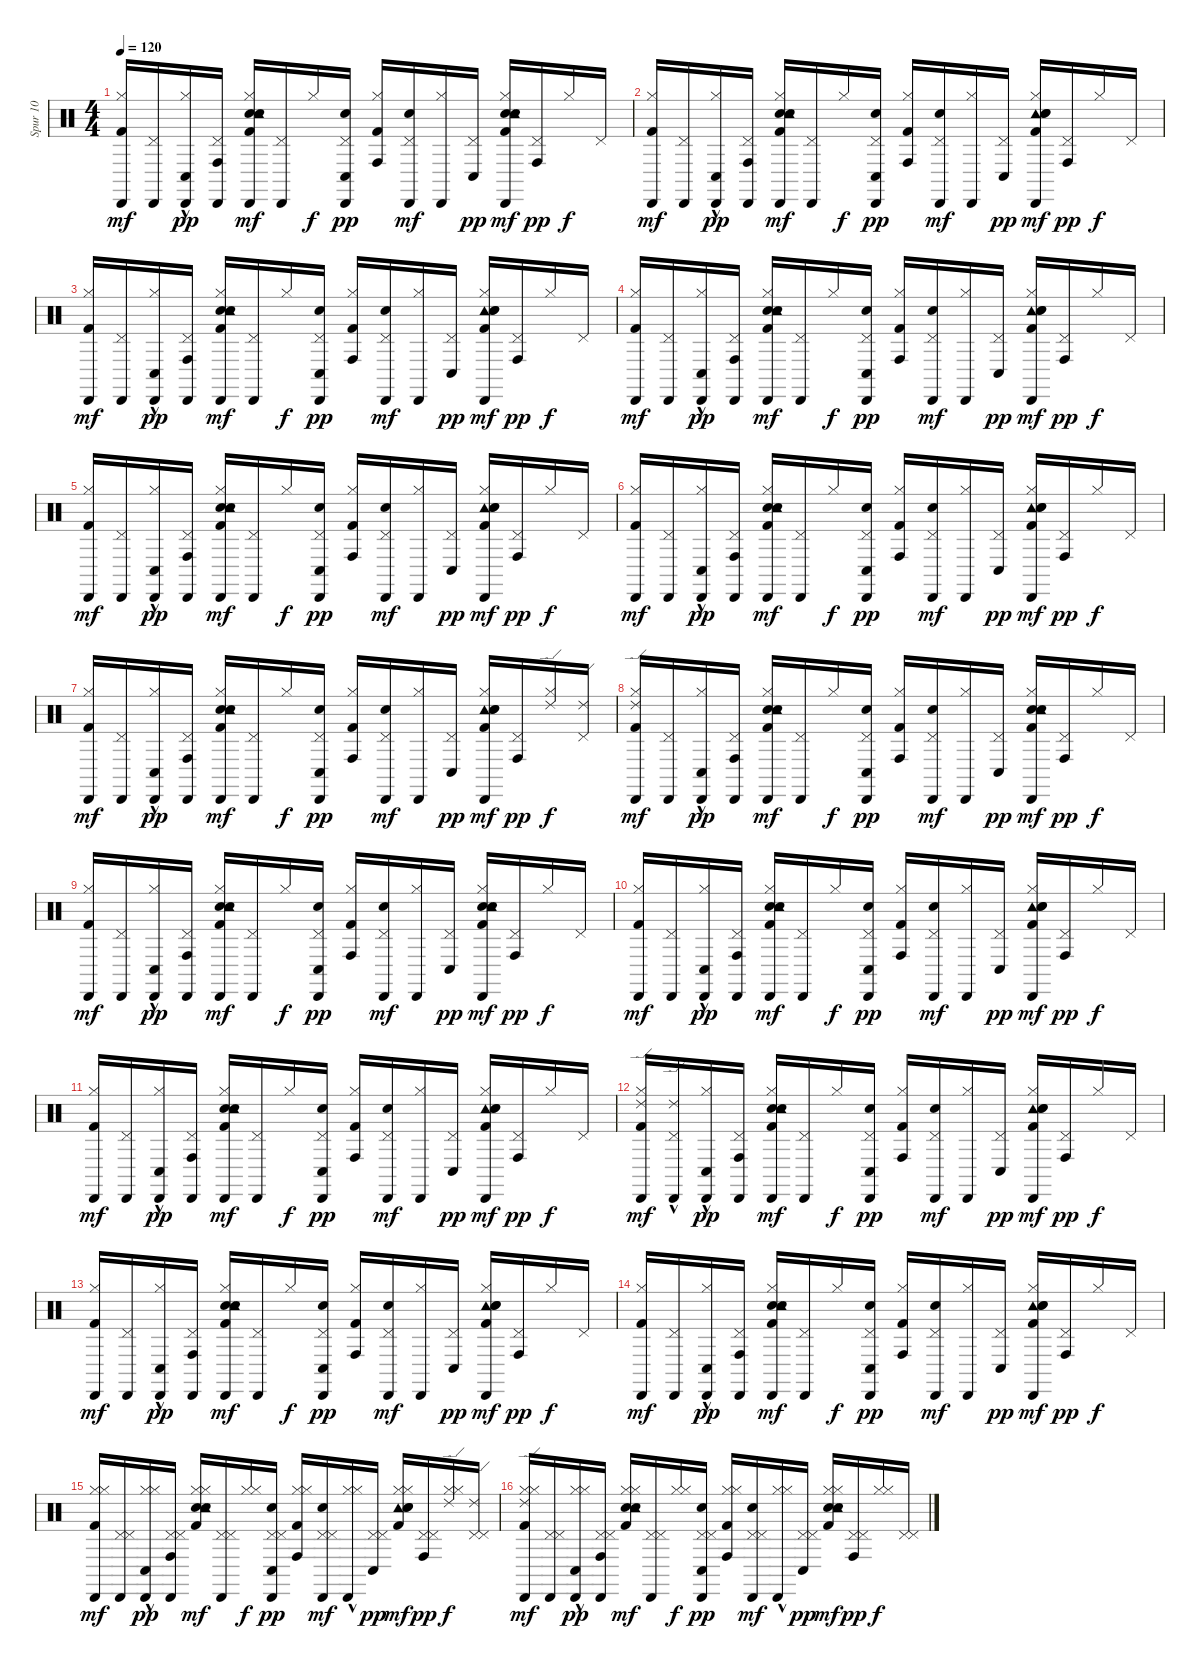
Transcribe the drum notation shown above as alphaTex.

\track ("Spur 10" "Spur 10") {instrument percussion}
\staff {score}
\articulation defaults
\ts (4 4)
\tempo 120
\clef neutral
\ks c
("Kick (hit) 2" "Hi-Hat (closed)" "Cabasa (hit)").16{dy mf} ("Pedal Hi-Hat (hit)" "Cabasa (hit)").16 ("Hi-Hat (closed)" "Cabasa (hit)" "Conga low (hit)"{hac}).16{dy pp} ("Pedal Hi-Hat (hit)" "Cabasa (hit)" "Conga high (hit)").16 ("Kick (hit) 2" "Snare (hit) 2" "Tambourine (hit)" "Electric Snare (hit)" "Hi-Hat (closed)" "Cabasa (hit)").16{dy mf} ("Pedal Hi-Hat (hit)" "Cabasa (hit)").16 "Hi-Hat (closed)".16{dy f} ("Electric Snare (hit)" "Pedal Hi-Hat (hit)" "Cabasa (hit)" "Conga low (hit)").16{dy pp} ("Kick (hit) 2" "Hi-Hat (closed)" "Conga high (hit)").16 ("Electric Snare (hit)" "Pedal Hi-Hat (hit)" "Cabasa (hit)").16{dy mf} ("Hi-Hat (closed)" "Cabasa (hit)").16 ("Pedal Hi-Hat (hit)" "Conga low (hit)").16{dy pp} ("Electric Snare (hit)" "Kick (hit) 2" "Tambourine (hit)" "Snare (hit) 2" "Hi-Hat (closed)" "Cabasa (hit)").16{dy mf} ("Pedal Hi-Hat (hit)" "Conga high (hit)").16{dy pp} "Hi-Hat (closed)".16{dy f} "Pedal Hi-Hat (hit)".16 |
("Kick (hit) 2" "Hi-Hat (closed)" "Cabasa (hit)").16{dy mf} ("Pedal Hi-Hat (hit)" "Cabasa (hit)").16 ("Hi-Hat (closed)" "Cabasa (hit)" "Conga low (hit)"{hac}).16{dy pp} ("Pedal Hi-Hat (hit)" "Cabasa (hit)" "Conga high (hit)").16 ("Kick (hit) 2" "Snare (hit) 2" "Tambourine (hit)" "Electric Snare (hit)" "Hi-Hat (closed)" "Cabasa (hit)").16{dy mf} ("Pedal Hi-Hat (hit)" "Cabasa (hit)").16 "Hi-Hat (closed)".16{dy f} ("Electric Snare (hit)" "Pedal Hi-Hat (hit)" "Cabasa (hit)" "Conga low (hit)").16{dy pp} ("Kick (hit) 2" "Hi-Hat (closed)" "Conga high (hit)").16 ("Electric Snare (hit)" "Pedal Hi-Hat (hit)" "Cabasa (hit)").16{dy mf} ("Hi-Hat (closed)" "Cabasa (hit)").16 ("Pedal Hi-Hat (hit)" "Conga low (hit)").16{dy pp} ("Tambourine (hit)" "Electric Snare (hit)" "Snare (hit) 2" "Kick (hit) 2" "Hi-Hat (closed)" "Cabasa (hit)").16{dy mf} ("Pedal Hi-Hat (hit)" "Conga high (hit)").16{dy pp} "Hi-Hat (closed)".16{dy f} "Pedal Hi-Hat (hit)".16 |
("Kick (hit) 2" "Hi-Hat (closed)" "Cabasa (hit)").16{dy mf} ("Pedal Hi-Hat (hit)" "Cabasa (hit)").16 ("Hi-Hat (closed)" "Cabasa (hit)" "Conga low (hit)"{hac}).16{dy pp} ("Pedal Hi-Hat (hit)" "Cabasa (hit)" "Conga high (hit)").16 ("Snare (hit) 2" "Kick (hit) 2" "Tambourine (hit)" "Electric Snare (hit)" "Hi-Hat (closed)" "Cabasa (hit)").16{dy mf} ("Pedal Hi-Hat (hit)" "Cabasa (hit)").16 "Hi-Hat (closed)".16{dy f} ("Electric Snare (hit)" "Pedal Hi-Hat (hit)" "Cabasa (hit)" "Conga low (hit)").16{dy pp} ("Kick (hit) 2" "Hi-Hat (closed)" "Conga high (hit)").16 ("Electric Snare (hit)" "Pedal Hi-Hat (hit)" "Cabasa (hit)").16{dy mf} ("Hi-Hat (closed)" "Cabasa (hit)").16 ("Pedal Hi-Hat (hit)" "Conga low (hit)").16{dy pp} ("Kick (hit) 2" "Tambourine (hit)" "Snare (hit) 2" "Electric Snare (hit)" "Hi-Hat (closed)" "Cabasa (hit)").16{dy mf} ("Pedal Hi-Hat (hit)" "Conga high (hit)").16{dy pp} "Hi-Hat (closed)".16{dy f} "Pedal Hi-Hat (hit)".16 |
("Kick (hit) 2" "Hi-Hat (closed)" "Cabasa (hit)").16{dy mf} ("Pedal Hi-Hat (hit)" "Cabasa (hit)").16 ("Hi-Hat (closed)" "Cabasa (hit)" "Conga low (hit)"{hac}).16{dy pp} ("Pedal Hi-Hat (hit)" "Cabasa (hit)" "Conga high (hit)").16 ("Snare (hit) 2" "Kick (hit) 2" "Tambourine (hit)" "Electric Snare (hit)" "Hi-Hat (closed)" "Cabasa (hit)").16{dy mf} ("Pedal Hi-Hat (hit)" "Cabasa (hit)").16 "Hi-Hat (closed)".16{dy f} ("Electric Snare (hit)" "Pedal Hi-Hat (hit)" "Cabasa (hit)" "Conga low (hit)").16{dy pp} ("Kick (hit) 2" "Hi-Hat (closed)" "Conga high (hit)").16 ("Electric Snare (hit)" "Pedal Hi-Hat (hit)" "Cabasa (hit)").16{dy mf} ("Hi-Hat (closed)" "Cabasa (hit)").16 ("Pedal Hi-Hat (hit)" "Conga low (hit)").16{dy pp} ("Kick (hit) 2" "Tambourine (hit)" "Snare (hit) 2" "Electric Snare (hit)" "Hi-Hat (closed)" "Cabasa (hit)").16{dy mf} ("Pedal Hi-Hat (hit)" "Conga high (hit)").16{dy pp} "Hi-Hat (closed)".16{dy f} "Pedal Hi-Hat (hit)".16 |
("Kick (hit) 2" "Hi-Hat (closed)" "Cabasa (hit)").16{dy mf} ("Pedal Hi-Hat (hit)" "Cabasa (hit)").16 ("Hi-Hat (closed)" "Cabasa (hit)" "Conga low (hit)"{hac}).16{dy pp} ("Pedal Hi-Hat (hit)" "Cabasa (hit)" "Conga high (hit)").16 ("Snare (hit) 2" "Kick (hit) 2" "Tambourine (hit)" "Electric Snare (hit)" "Hi-Hat (closed)" "Cabasa (hit)").16{dy mf} ("Pedal Hi-Hat (hit)" "Cabasa (hit)").16 "Hi-Hat (closed)".16{dy f} ("Electric Snare (hit)" "Pedal Hi-Hat (hit)" "Cabasa (hit)" "Conga low (hit)").16{dy pp} ("Kick (hit) 2" "Hi-Hat (closed)" "Conga high (hit)").16 ("Electric Snare (hit)" "Pedal Hi-Hat (hit)" "Cabasa (hit)").16{dy mf} ("Hi-Hat (closed)" "Cabasa (hit)").16 ("Pedal Hi-Hat (hit)" "Conga low (hit)").16{dy pp} ("Kick (hit) 2" "Tambourine (hit)" "Snare (hit) 2" "Electric Snare (hit)" "Hi-Hat (closed)" "Cabasa (hit)").16{dy mf} ("Pedal Hi-Hat (hit)" "Conga high (hit)").16{dy pp} "Hi-Hat (closed)".16{dy f} "Pedal Hi-Hat (hit)".16 |
("Kick (hit) 2" "Hi-Hat (closed)" "Cabasa (hit)").16{dy mf} ("Pedal Hi-Hat (hit)" "Cabasa (hit)").16 ("Hi-Hat (closed)" "Cabasa (hit)" "Conga low (hit)"{hac}).16{dy pp} ("Pedal Hi-Hat (hit)" "Cabasa (hit)" "Conga high (hit)").16 ("Snare (hit) 2" "Kick (hit) 2" "Tambourine (hit)" "Electric Snare (hit)" "Hi-Hat (closed)" "Cabasa (hit)").16{dy mf} ("Pedal Hi-Hat (hit)" "Cabasa (hit)").16 "Hi-Hat (closed)".16{dy f} ("Electric Snare (hit)" "Pedal Hi-Hat (hit)" "Cabasa (hit)" "Conga low (hit)").16{dy pp} ("Kick (hit) 2" "Hi-Hat (closed)" "Conga high (hit)").16 ("Electric Snare (hit)" "Pedal Hi-Hat (hit)" "Cabasa (hit)").16{dy mf} ("Hi-Hat (closed)" "Cabasa (hit)").16 ("Pedal Hi-Hat (hit)" "Conga low (hit)").16{dy pp} ("Kick (hit) 2" "Tambourine (hit)" "Snare (hit) 2" "Electric Snare (hit)" "Hi-Hat (closed)" "Cabasa (hit)").16{dy mf} ("Pedal Hi-Hat (hit)" "Conga high (hit)").16{dy pp} "Hi-Hat (closed)".16{dy f} "Pedal Hi-Hat (hit)".16 |
("Kick (hit) 2" "Hi-Hat (closed)" "Cabasa (hit)").16{dy mf} ("Pedal Hi-Hat (hit)" "Cabasa (hit)").16 ("Hi-Hat (closed)" "Cabasa (hit)" "Conga low (hit)"{hac}).16{dy pp} ("Pedal Hi-Hat (hit)" "Cabasa (hit)" "Conga high (hit)").16 ("Snare (hit) 2" "Kick (hit) 2" "Tambourine (hit)" "Electric Snare (hit)" "Hi-Hat (closed)" "Cabasa (hit)").16{dy mf} ("Pedal Hi-Hat (hit)" "Cabasa (hit)").16 "Hi-Hat (closed)".16{dy f} ("Electric Snare (hit)" "Pedal Hi-Hat (hit)" "Cabasa (hit)" "Conga low (hit)").16{dy pp} ("Kick (hit) 2" "Hi-Hat (closed)" "Conga high (hit)").16 ("Electric Snare (hit)" "Pedal Hi-Hat (hit)" "Cabasa (hit)").16{dy mf} ("Hi-Hat (closed)" "Cabasa (hit)").16 ("Pedal Hi-Hat (hit)" "Conga low (hit)").16{dy pp} ("Kick (hit) 2" "Tambourine (hit)" "Snare (hit) 2" "Electric Snare (hit)" "Hi-Hat (closed)" "Cabasa (hit)").16{dy mf} ("Pedal Hi-Hat (hit)" "Conga high (hit)").16{dy pp} ("Ride (edge) 2" "Hi-Hat (closed)").16{dy f} ("Pedal Hi-Hat (hit)" "Ride (edge) 2").16 |
("Kick (hit) 2" "Hi-Hat (closed)" "Ride (edge) 2" "Cabasa (hit)").16{dy mf} ("Pedal Hi-Hat (hit)" "Cabasa (hit)").16 ("Hi-Hat (closed)" "Cabasa (hit)" "Conga low (hit)"{hac}).16{dy pp} ("Pedal Hi-Hat (hit)" "Cabasa (hit)" "Conga high (hit)").16 ("Kick (hit) 2" "Snare (hit) 2" "Tambourine (hit)" "Electric Snare (hit)" "Hi-Hat (closed)" "Cabasa (hit)").16{dy mf} ("Pedal Hi-Hat (hit)" "Cabasa (hit)").16 "Hi-Hat (closed)".16{dy f} ("Electric Snare (hit)" "Pedal Hi-Hat (hit)" "Cabasa (hit)" "Conga low (hit)").16{dy pp} ("Kick (hit) 2" "Hi-Hat (closed)" "Conga high (hit)").16 ("Electric Snare (hit)" "Pedal Hi-Hat (hit)" "Cabasa (hit)").16{dy mf} ("Hi-Hat (closed)" "Cabasa (hit)").16 ("Pedal Hi-Hat (hit)" "Conga low (hit)").16{dy pp} ("Electric Snare (hit)" "Kick (hit) 2" "Tambourine (hit)" "Snare (hit) 2" "Hi-Hat (closed)" "Cabasa (hit)").16{dy mf} ("Pedal Hi-Hat (hit)" "Conga high (hit)").16{dy pp} "Hi-Hat (closed)".16{dy f} "Pedal Hi-Hat (hit)".16 |
("Kick (hit) 2" "Hi-Hat (closed)" "Cabasa (hit)").16{dy mf} ("Pedal Hi-Hat (hit)" "Cabasa (hit)").16 ("Hi-Hat (closed)" "Cabasa (hit)" "Conga low (hit)"{hac}).16{dy pp} ("Pedal Hi-Hat (hit)" "Cabasa (hit)" "Conga high (hit)").16 ("Kick (hit) 2" "Snare (hit) 2" "Tambourine (hit)" "Electric Snare (hit)" "Hi-Hat (closed)" "Cabasa (hit)").16{dy mf} ("Pedal Hi-Hat (hit)" "Cabasa (hit)").16 "Hi-Hat (closed)".16{dy f} ("Electric Snare (hit)" "Pedal Hi-Hat (hit)" "Cabasa (hit)" "Conga low (hit)").16{dy pp} ("Kick (hit) 2" "Hi-Hat (closed)" "Conga high (hit)").16 ("Electric Snare (hit)" "Pedal Hi-Hat (hit)" "Cabasa (hit)").16{dy mf} ("Hi-Hat (closed)" "Cabasa (hit)").16 ("Pedal Hi-Hat (hit)" "Conga low (hit)").16{dy pp} ("Electric Snare (hit)" "Kick (hit) 2" "Tambourine (hit)" "Snare (hit) 2" "Hi-Hat (closed)" "Cabasa (hit)").16{dy mf} ("Pedal Hi-Hat (hit)" "Conga high (hit)").16{dy pp} "Hi-Hat (closed)".16{dy f} "Pedal Hi-Hat (hit)".16 |
("Kick (hit) 2" "Hi-Hat (closed)" "Cabasa (hit)").16{dy mf} ("Pedal Hi-Hat (hit)" "Cabasa (hit)").16 ("Hi-Hat (closed)" "Cabasa (hit)" "Conga low (hit)"{hac}).16{dy pp} ("Pedal Hi-Hat (hit)" "Cabasa (hit)" "Conga high (hit)").16 ("Kick (hit) 2" "Snare (hit) 2" "Tambourine (hit)" "Electric Snare (hit)" "Hi-Hat (closed)" "Cabasa (hit)").16{dy mf} ("Pedal Hi-Hat (hit)" "Cabasa (hit)").16 "Hi-Hat (closed)".16{dy f} ("Electric Snare (hit)" "Pedal Hi-Hat (hit)" "Cabasa (hit)" "Conga low (hit)").16{dy pp} ("Kick (hit) 2" "Hi-Hat (closed)" "Conga high (hit)").16 ("Electric Snare (hit)" "Pedal Hi-Hat (hit)" "Cabasa (hit)").16{dy mf} ("Hi-Hat (closed)" "Cabasa (hit)").16 ("Pedal Hi-Hat (hit)" "Conga low (hit)").16{dy pp} ("Tambourine (hit)" "Electric Snare (hit)" "Snare (hit) 2" "Kick (hit) 2" "Hi-Hat (closed)" "Cabasa (hit)").16{dy mf} ("Pedal Hi-Hat (hit)" "Conga high (hit)").16{dy pp} "Hi-Hat (closed)".16{dy f} "Pedal Hi-Hat (hit)".16 |
("Kick (hit) 2" "Hi-Hat (closed)" "Cabasa (hit)").16{dy mf} ("Pedal Hi-Hat (hit)" "Cabasa (hit)").16 ("Hi-Hat (closed)" "Cabasa (hit)" "Conga low (hit)"{hac}).16{dy pp} ("Pedal Hi-Hat (hit)" "Cabasa (hit)" "Conga high (hit)").16 ("Snare (hit) 2" "Kick (hit) 2" "Tambourine (hit)" "Electric Snare (hit)" "Hi-Hat (closed)" "Cabasa (hit)").16{dy mf} ("Pedal Hi-Hat (hit)" "Cabasa (hit)").16 "Hi-Hat (closed)".16{dy f} ("Electric Snare (hit)" "Pedal Hi-Hat (hit)" "Cabasa (hit)" "Conga low (hit)").16{dy pp} ("Kick (hit) 2" "Hi-Hat (closed)" "Conga high (hit)").16 ("Electric Snare (hit)" "Pedal Hi-Hat (hit)" "Cabasa (hit)").16{dy mf} ("Hi-Hat (closed)" "Cabasa (hit)").16 ("Pedal Hi-Hat (hit)" "Conga low (hit)").16{dy pp} ("Kick (hit) 2" "Tambourine (hit)" "Snare (hit) 2" "Electric Snare (hit)" "Hi-Hat (closed)" "Cabasa (hit)").16{dy mf} ("Pedal Hi-Hat (hit)" "Conga high (hit)").16{dy pp} "Hi-Hat (closed)".16{dy f} "Pedal Hi-Hat (hit)".16 |
("Kick (hit) 2" "Hi-Hat (closed)" "Ride (edge) 2" "Cabasa (hit)").16{dy mf} ("Ride (edge) 2"{hac} "Pedal Hi-Hat (hit)" "Cabasa (hit)").16 ("Hi-Hat (closed)" "Cabasa (hit)" "Conga low (hit)"{hac}).16{dy pp} ("Pedal Hi-Hat (hit)" "Cabasa (hit)" "Conga high (hit)").16 ("Snare (hit) 2" "Kick (hit) 2" "Tambourine (hit)" "Electric Snare (hit)" "Hi-Hat (closed)" "Cabasa (hit)").16{dy mf} ("Pedal Hi-Hat (hit)" "Cabasa (hit)").16 "Hi-Hat (closed)".16{dy f} ("Electric Snare (hit)" "Pedal Hi-Hat (hit)" "Cabasa (hit)" "Conga low (hit)").16{dy pp} ("Kick (hit) 2" "Hi-Hat (closed)" "Conga high (hit)").16 ("Electric Snare (hit)" "Pedal Hi-Hat (hit)" "Cabasa (hit)").16{dy mf} ("Hi-Hat (closed)" "Cabasa (hit)").16 ("Pedal Hi-Hat (hit)" "Conga low (hit)").16{dy pp} ("Kick (hit) 2" "Tambourine (hit)" "Snare (hit) 2" "Electric Snare (hit)" "Hi-Hat (closed)" "Cabasa (hit)").16{dy mf} ("Pedal Hi-Hat (hit)" "Conga high (hit)").16{dy pp} "Hi-Hat (closed)".16{dy f} "Pedal Hi-Hat (hit)".16 |
("Kick (hit) 2" "Hi-Hat (closed)" "Cabasa (hit)").16{dy mf} ("Pedal Hi-Hat (hit)" "Cabasa (hit)").16 ("Hi-Hat (closed)" "Cabasa (hit)" "Conga low (hit)"{hac}).16{dy pp} ("Pedal Hi-Hat (hit)" "Cabasa (hit)" "Conga high (hit)").16 ("Snare (hit) 2" "Kick (hit) 2" "Tambourine (hit)" "Electric Snare (hit)" "Hi-Hat (closed)" "Cabasa (hit)").16{dy mf} ("Pedal Hi-Hat (hit)" "Cabasa (hit)").16 "Hi-Hat (closed)".16{dy f} ("Electric Snare (hit)" "Pedal Hi-Hat (hit)" "Cabasa (hit)" "Conga low (hit)").16{dy pp} ("Kick (hit) 2" "Hi-Hat (closed)" "Conga high (hit)").16 ("Electric Snare (hit)" "Pedal Hi-Hat (hit)" "Cabasa (hit)").16{dy mf} ("Hi-Hat (closed)" "Cabasa (hit)").16 ("Pedal Hi-Hat (hit)" "Conga low (hit)").16{dy pp} ("Kick (hit) 2" "Tambourine (hit)" "Snare (hit) 2" "Electric Snare (hit)" "Hi-Hat (closed)" "Cabasa (hit)").16{dy mf} ("Pedal Hi-Hat (hit)" "Conga high (hit)").16{dy pp} "Hi-Hat (closed)".16{dy f} "Pedal Hi-Hat (hit)".16 |
("Kick (hit) 2" "Hi-Hat (closed)" "Cabasa (hit)").16{dy mf} ("Pedal Hi-Hat (hit)" "Cabasa (hit)").16 ("Hi-Hat (closed)" "Cabasa (hit)" "Conga low (hit)"{hac}).16{dy pp} ("Pedal Hi-Hat (hit)" "Cabasa (hit)" "Conga high (hit)").16 ("Snare (hit) 2" "Kick (hit) 2" "Tambourine (hit)" "Electric Snare (hit)" "Hi-Hat (closed)" "Cabasa (hit)").16{dy mf} ("Pedal Hi-Hat (hit)" "Cabasa (hit)").16 "Hi-Hat (closed)".16{dy f} ("Electric Snare (hit)" "Pedal Hi-Hat (hit)" "Cabasa (hit)" "Conga low (hit)").16{dy pp} ("Kick (hit) 2" "Hi-Hat (closed)" "Conga high (hit)").16 ("Electric Snare (hit)" "Pedal Hi-Hat (hit)" "Cabasa (hit)").16{dy mf} ("Hi-Hat (closed)" "Cabasa (hit)").16 ("Pedal Hi-Hat (hit)" "Conga low (hit)").16{dy pp} ("Kick (hit) 2" "Tambourine (hit)" "Snare (hit) 2" "Electric Snare (hit)" "Hi-Hat (closed)" "Cabasa (hit)").16{dy mf} ("Pedal Hi-Hat (hit)" "Conga high (hit)").16{dy pp} "Hi-Hat (closed)".16{dy f} "Pedal Hi-Hat (hit)".16 |
("Kick (hit) 2" "Hi-Hat (closed)" "Hi-Hat (closed)" "Cabasa (hit)").16{dy mf} ("Pedal Hi-Hat (hit)" "Pedal Hi-Hat (hit)" "Cabasa (hit)").16 ("Hi-Hat (closed)" "Hi-Hat (closed)" "Cabasa (hit)" "Conga low (hit)"{hac}).16{dy pp} ("Pedal Hi-Hat (hit)" "Pedal Hi-Hat (hit)" "Cabasa (hit)" "Conga high (hit)").16 ("Snare (hit) 2" "Kick (hit) 2" "Tambourine (hit)" "Electric Snare (hit)" "Hi-Hat (closed)" "Hi-Hat (closed)").16{dy mf} ("Pedal Hi-Hat (hit)" "Pedal Hi-Hat (hit)" "Cabasa (hit)").16 ("Hi-Hat (closed)" "Hi-Hat (closed)").16{dy f} ("Electric Snare (hit)" "Pedal Hi-Hat (hit)" "Pedal Hi-Hat (hit)" "Cabasa (hit)" "Conga low (hit)").16{dy pp} ("Kick (hit) 2" "Hi-Hat (closed)" "Hi-Hat (closed)" "Conga high (hit)").16 ("Electric Snare (hit)" "Pedal Hi-Hat (hit)" "Pedal Hi-Hat (hit)" "Cabasa (hit)").16{dy mf} ("Hi-Hat (closed)" "Hi-Hat (closed)" "Cabasa (hit)"{hac}).16 ("Pedal Hi-Hat (hit)" "Pedal Hi-Hat (hit)" "Conga low (hit)").16{dy pp} ("Kick (hit) 2" "Tambourine (hit)" "Snare (hit) 2" "Electric Snare (hit)" "Hi-Hat (closed)" "Hi-Hat (closed)").16{dy mf} ("Pedal Hi-Hat (hit)" "Pedal Hi-Hat (hit)" "Conga high (hit)").16{dy pp} ("Hi-Hat (closed)" "Ride (edge) 2" "Hi-Hat (closed)").16{dy f} ("Pedal Hi-Hat (hit)" "Ride (edge) 2" "Pedal Hi-Hat (hit)").16 |
("Kick (hit) 2" "Hi-Hat (closed)" "Hi-Hat (closed)" "Ride (edge) 2" "Cabasa (hit)").16{dy mf} ("Pedal Hi-Hat (hit)" "Pedal Hi-Hat (hit)" "Cabasa (hit)").16 ("Hi-Hat (closed)" "Hi-Hat (closed)" "Cabasa (hit)" "Conga low (hit)"{hac}).16{dy pp} ("Pedal Hi-Hat (hit)" "Pedal Hi-Hat (hit)" "Cabasa (hit)" "Conga high (hit)").16 ("Kick (hit) 2" "Snare (hit) 2" "Tambourine (hit)" "Electric Snare (hit)" "Hi-Hat (closed)" "Hi-Hat (closed)").16{dy mf} ("Pedal Hi-Hat (hit)" "Pedal Hi-Hat (hit)" "Cabasa (hit)").16 ("Hi-Hat (closed)" "Hi-Hat (closed)").16{dy f} ("Electric Snare (hit)" "Pedal Hi-Hat (hit)" "Pedal Hi-Hat (hit)" "Cabasa (hit)" "Conga low (hit)").16{dy pp} ("Kick (hit) 2" "Hi-Hat (closed)" "Hi-Hat (closed)" "Conga high (hit)").16 ("Electric Snare (hit)" "Pedal Hi-Hat (hit)" "Pedal Hi-Hat (hit)" "Cabasa (hit)").16{dy mf} ("Hi-Hat (closed)" "Hi-Hat (closed)" "Cabasa (hit)"{hac}).16 ("Pedal Hi-Hat (hit)" "Pedal Hi-Hat (hit)" "Conga low (hit)").16{dy pp} ("Electric Snare (hit)" "Kick (hit) 2" "Tambourine (hit)" "Snare (hit) 2" "Hi-Hat (closed)" "Hi-Hat (closed)").16{dy mf} ("Pedal Hi-Hat (hit)" "Pedal Hi-Hat (hit)" "Conga high (hit)").16{dy pp} ("Hi-Hat (closed)" "Hi-Hat (closed)").16{dy f} ("Pedal Hi-Hat (hit)" "Pedal Hi-Hat (hit)").16
